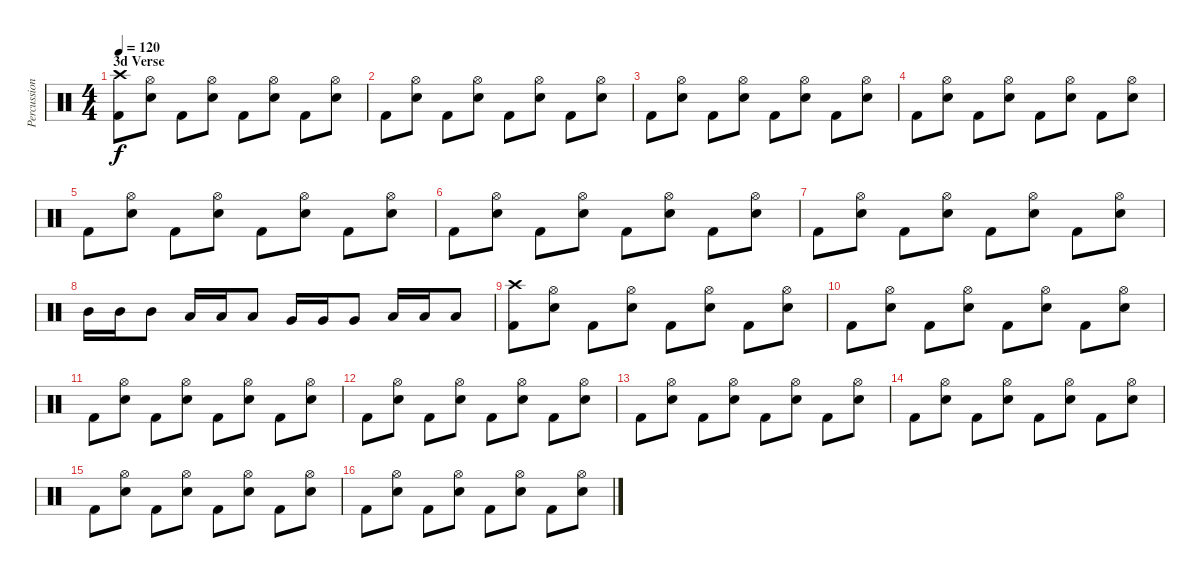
\track ("Percussioni" "Percussion") {instrument percussion}
\staff {score}
\articulation defaults
\ts (4 4)
\section ("" "3d Verse")
\tempo 120
\clef neutral
\ks c
("Crash high (hit)" "Kick (hit) 2").8{dy f} ("Hi-Hat (open)" "Electric Snare (hit)").8 "Kick (hit) 2".8 ("Hi-Hat (open)" "Electric Snare (hit)").8 "Kick (hit) 2".8 ("Hi-Hat (open)" "Electric Snare (hit)").8 "Kick (hit) 2".8 ("Hi-Hat (open)" "Electric Snare (hit)").8 |
"Kick (hit) 2".8 ("Hi-Hat (open)" "Electric Snare (hit)").8 "Kick (hit) 2".8 ("Hi-Hat (open)" "Electric Snare (hit)").8 "Kick (hit) 2".8 ("Hi-Hat (open)" "Electric Snare (hit)").8 "Kick (hit) 2".8 ("Hi-Hat (open)" "Electric Snare (hit)").8 |
"Kick (hit) 2".8 ("Hi-Hat (open)" "Electric Snare (hit)").8 "Kick (hit) 2".8 ("Hi-Hat (open)" "Electric Snare (hit)").8 "Kick (hit) 2".8 ("Hi-Hat (open)" "Electric Snare (hit)").8 "Kick (hit) 2".8 ("Hi-Hat (open)" "Electric Snare (hit)").8 |
"Kick (hit) 2".8 ("Hi-Hat (open)" "Electric Snare (hit)").8 "Kick (hit) 2".8 ("Hi-Hat (open)" "Electric Snare (hit)").8 "Kick (hit) 2".8 ("Hi-Hat (open)" "Electric Snare (hit)").8 "Kick (hit) 2".8 ("Hi-Hat (open)" "Electric Snare (hit)").8 |
"Kick (hit) 2".8 ("Hi-Hat (open)" "Electric Snare (hit)").8 "Kick (hit) 2".8 ("Hi-Hat (open)" "Electric Snare (hit)").8 "Kick (hit) 2".8 ("Hi-Hat (open)" "Electric Snare (hit)").8 "Kick (hit) 2".8 ("Hi-Hat (open)" "Electric Snare (hit)").8 |
"Kick (hit) 2".8 ("Hi-Hat (open)" "Electric Snare (hit)").8 "Kick (hit) 2".8 ("Hi-Hat (open)" "Electric Snare (hit)").8 "Kick (hit) 2".8 ("Hi-Hat (open)" "Electric Snare (hit)").8 "Kick (hit) 2".8 ("Hi-Hat (open)" "Electric Snare (hit)").8 |
"Kick (hit) 2".8 ("Hi-Hat (open)" "Electric Snare (hit)").8 "Kick (hit) 2".8 ("Hi-Hat (open)" "Electric Snare (hit)").8 "Kick (hit) 2".8 ("Hi-Hat (open)" "Electric Snare (hit)").8 "Kick (hit) 2".8 ("Hi-Hat (open)" "Electric Snare (hit)").8 |
"Mid Tom (hit)".16 "Mid Tom (hit)".16 "Mid Tom (hit)".8 "Low Tom (hit)".16 "Low Tom (hit)".16 "Low Tom (hit)".8 "Very Low Tom (hit)".16 "Very Low Tom (hit)".16 "Very Low Tom (hit)".8 "Low Floor Tom (hit)".16 "Low Floor Tom (hit)".16 "Low Floor Tom (hit)".8 |
("Crash high (hit)" "Kick (hit) 2").8 ("Hi-Hat (open)" "Electric Snare (hit)").8 "Kick (hit) 2".8 ("Hi-Hat (open)" "Electric Snare (hit)").8 "Kick (hit) 2".8 ("Hi-Hat (open)" "Electric Snare (hit)").8 "Kick (hit) 2".8 ("Hi-Hat (open)" "Electric Snare (hit)").8 |
"Kick (hit) 2".8 ("Hi-Hat (open)" "Electric Snare (hit)").8 "Kick (hit) 2".8 ("Hi-Hat (open)" "Electric Snare (hit)").8 "Kick (hit) 2".8 ("Hi-Hat (open)" "Electric Snare (hit)").8 "Kick (hit) 2".8 ("Hi-Hat (open)" "Electric Snare (hit)").8 |
"Kick (hit) 2".8 ("Hi-Hat (open)" "Electric Snare (hit)").8 "Kick (hit) 2".8 ("Hi-Hat (open)" "Electric Snare (hit)").8 "Kick (hit) 2".8 ("Hi-Hat (open)" "Electric Snare (hit)").8 "Kick (hit) 2".8 ("Hi-Hat (open)" "Electric Snare (hit)").8 |
"Kick (hit) 2".8 ("Hi-Hat (open)" "Electric Snare (hit)").8 "Kick (hit) 2".8 ("Hi-Hat (open)" "Electric Snare (hit)").8 "Kick (hit) 2".8 ("Hi-Hat (open)" "Electric Snare (hit)").8 "Kick (hit) 2".8 ("Hi-Hat (open)" "Electric Snare (hit)").8 |
"Kick (hit) 2".8 ("Hi-Hat (open)" "Electric Snare (hit)").8 "Kick (hit) 2".8 ("Hi-Hat (open)" "Electric Snare (hit)").8 "Kick (hit) 2".8 ("Hi-Hat (open)" "Electric Snare (hit)").8 "Kick (hit) 2".8 ("Hi-Hat (open)" "Electric Snare (hit)").8 |
"Kick (hit) 2".8 ("Hi-Hat (open)" "Electric Snare (hit)").8 "Kick (hit) 2".8 ("Hi-Hat (open)" "Electric Snare (hit)").8 "Kick (hit) 2".8 ("Hi-Hat (open)" "Electric Snare (hit)").8 "Kick (hit) 2".8 ("Hi-Hat (open)" "Electric Snare (hit)").8 |
"Kick (hit) 2".8 ("Hi-Hat (open)" "Electric Snare (hit)").8 "Kick (hit) 2".8 ("Hi-Hat (open)" "Electric Snare (hit)").8 "Kick (hit) 2".8 ("Hi-Hat (open)" "Electric Snare (hit)").8 "Kick (hit) 2".8 ("Hi-Hat (open)" "Electric Snare (hit)").8 |
"Kick (hit) 2".8 ("Hi-Hat (open)" "Electric Snare (hit)").8 "Kick (hit) 2".8 ("Hi-Hat (open)" "Electric Snare (hit)").8 "Kick (hit) 2".8 ("Hi-Hat (open)" "Electric Snare (hit)").8 "Kick (hit) 2".8 ("Hi-Hat (open)" "Electric Snare (hit)").8
